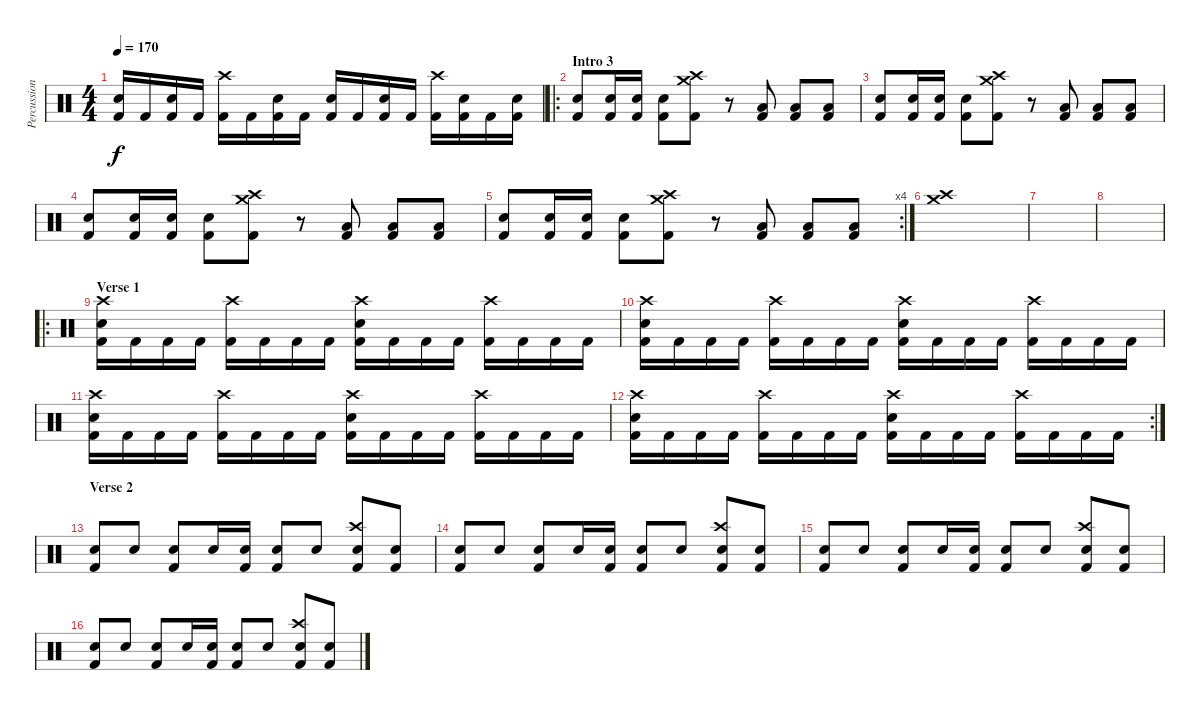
\track ("Percussion" "Percussion") {instrument percussion}
\staff {score}
\articulation defaults
\ts (4 4)
\tempo 170
\clef neutral
\ks c
("Electric Snare (hit)" "Kick (hit) 2").16{dy f} "Kick (hit) 2".16 ("Electric Snare (hit)" "Kick (hit) 2").16 "Kick (hit) 2".16 ("Crash high (hit)" "Kick (hit) 2").16 "Kick (hit) 2".16 ("Electric Snare (hit)" "Kick (hit) 2").16 "Kick (hit) 2".16 ("Electric Snare (hit)" "Kick (hit) 2").16 "Kick (hit) 2".16 ("Electric Snare (hit)" "Kick (hit) 2").16 "Kick (hit) 2".16 ("Crash high (hit)" "Kick (hit) 2").16 ("Electric Snare (hit)" "Kick (hit) 2").16 "Kick (hit) 2".16 ("Electric Snare (hit)" "Kick (hit) 2").16 |
\ro
\section ("" "Intro 3")
("Electric Snare (hit)" "Kick (hit) 2").8 ("Electric Snare (hit)" "Kick (hit) 2").16 ("Electric Snare (hit)" "Kick (hit) 2").16 ("Electric Snare (hit)" "Kick (hit) 2").8 ("Crash high (hit)" "Crash medium (hit)" "Kick (hit) 2").8 r.8 ("Low Tom (hit)" "Kick (hit) 2").8 ("Low Tom (hit)" "Kick (hit) 2").8 ("Low Tom (hit)" "Kick (hit) 2").8 |
("Electric Snare (hit)" "Kick (hit) 2").8 ("Electric Snare (hit)" "Kick (hit) 2").16 ("Electric Snare (hit)" "Kick (hit) 2").16 ("Electric Snare (hit)" "Kick (hit) 2").8 ("Crash high (hit)" "Crash medium (hit)" "Kick (hit) 2").8 r.8 ("Low Tom (hit)" "Kick (hit) 2").8 ("Low Tom (hit)" "Kick (hit) 2").8 ("Low Tom (hit)" "Kick (hit) 2").8 |
("Electric Snare (hit)" "Kick (hit) 2").8 ("Electric Snare (hit)" "Kick (hit) 2").16 ("Electric Snare (hit)" "Kick (hit) 2").16 ("Electric Snare (hit)" "Kick (hit) 2").8 ("Crash high (hit)" "Crash medium (hit)" "Kick (hit) 2").8 r.8 ("Low Tom (hit)" "Kick (hit) 2").8 ("Low Tom (hit)" "Kick (hit) 2").8 ("Low Tom (hit)" "Kick (hit) 2").8 |
\rc 4
("Electric Snare (hit)" "Kick (hit) 2").8 ("Electric Snare (hit)" "Kick (hit) 2").16 ("Electric Snare (hit)" "Kick (hit) 2").16 ("Electric Snare (hit)" "Kick (hit) 2").8 ("Crash high (hit)" "Crash medium (hit)" "Kick (hit) 2").8 r.8 ("Low Tom (hit)" "Kick (hit) 2").8 ("Low Tom (hit)" "Kick (hit) 2").8 ("Low Tom (hit)" "Kick (hit) 2").8 |
("Crash high (hit)" "Crash medium (hit)").1 |
|
|
\ro
\section ("" "Verse 1")
("Crash high (hit)" "Electric Snare (hit)" "Kick (hit) 2").16 "Kick (hit) 2".16 "Kick (hit) 2".16 "Kick (hit) 2".16 ("Crash high (hit)" "Kick (hit) 2").16 "Kick (hit) 2".16 "Kick (hit) 2".16 "Kick (hit) 2".16 ("Crash high (hit)" "Electric Snare (hit)" "Kick (hit) 2").16 "Kick (hit) 2".16 "Kick (hit) 2".16 "Kick (hit) 2".16 ("Crash high (hit)" "Kick (hit) 2").16 "Kick (hit) 2".16 "Kick (hit) 2".16 "Kick (hit) 2".16 |
("Crash high (hit)" "Electric Snare (hit)" "Kick (hit) 2").16 "Kick (hit) 2".16 "Kick (hit) 2".16 "Kick (hit) 2".16 ("Crash high (hit)" "Kick (hit) 2").16 "Kick (hit) 2".16 "Kick (hit) 2".16 "Kick (hit) 2".16 ("Crash high (hit)" "Electric Snare (hit)" "Kick (hit) 2").16 "Kick (hit) 2".16 "Kick (hit) 2".16 "Kick (hit) 2".16 ("Crash high (hit)" "Kick (hit) 2").16 "Kick (hit) 2".16 "Kick (hit) 2".16 "Kick (hit) 2".16 |
("Crash high (hit)" "Electric Snare (hit)" "Kick (hit) 2").16 "Kick (hit) 2".16 "Kick (hit) 2".16 "Kick (hit) 2".16 ("Crash high (hit)" "Kick (hit) 2").16 "Kick (hit) 2".16 "Kick (hit) 2".16 "Kick (hit) 2".16 ("Crash high (hit)" "Electric Snare (hit)" "Kick (hit) 2").16 "Kick (hit) 2".16 "Kick (hit) 2".16 "Kick (hit) 2".16 ("Crash high (hit)" "Kick (hit) 2").16 "Kick (hit) 2".16 "Kick (hit) 2".16 "Kick (hit) 2".16 |
\rc 2
("Crash high (hit)" "Electric Snare (hit)" "Kick (hit) 2").16 "Kick (hit) 2".16 "Kick (hit) 2".16 "Kick (hit) 2".16 ("Crash high (hit)" "Kick (hit) 2").16 "Kick (hit) 2".16 "Kick (hit) 2".16 "Kick (hit) 2".16 ("Crash high (hit)" "Electric Snare (hit)" "Kick (hit) 2").16 "Kick (hit) 2".16 "Kick (hit) 2".16 "Kick (hit) 2".16 ("Crash high (hit)" "Kick (hit) 2").16 "Kick (hit) 2".16 "Kick (hit) 2".16 "Kick (hit) 2".16 |
\section ("" "Verse 2")
("Snare (hit) 2" "Kick (hit) 2").8 "Snare (hit) 2".8 ("Snare (hit) 2" "Kick (hit) 2").8 "Snare (hit) 2".16 ("Snare (hit) 2" "Kick (hit) 2").16 ("Snare (hit) 2" "Kick (hit) 2").8 "Snare (hit) 2".8 ("Crash high (hit)" "Snare (hit) 2" "Kick (hit) 2").8 ("Snare (hit) 2" "Kick (hit) 2").8 |
("Snare (hit) 2" "Kick (hit) 2").8 "Snare (hit) 2".8 ("Snare (hit) 2" "Kick (hit) 2").8 "Snare (hit) 2".16 ("Snare (hit) 2" "Kick (hit) 2").16 ("Snare (hit) 2" "Kick (hit) 2").8 "Snare (hit) 2".8 ("Crash high (hit)" "Snare (hit) 2" "Kick (hit) 2").8 ("Snare (hit) 2" "Kick (hit) 2").8 |
("Snare (hit) 2" "Kick (hit) 2").8 "Snare (hit) 2".8 ("Snare (hit) 2" "Kick (hit) 2").8 "Snare (hit) 2".16 ("Snare (hit) 2" "Kick (hit) 2").16 ("Snare (hit) 2" "Kick (hit) 2").8 "Snare (hit) 2".8 ("Crash high (hit)" "Snare (hit) 2" "Kick (hit) 2").8 ("Snare (hit) 2" "Kick (hit) 2").8 |
("Snare (hit) 2" "Kick (hit) 2").8 "Snare (hit) 2".8 ("Snare (hit) 2" "Kick (hit) 2").8 "Snare (hit) 2".16 ("Snare (hit) 2" "Kick (hit) 2").16 ("Snare (hit) 2" "Kick (hit) 2").8 "Snare (hit) 2".8 ("Crash high (hit)" "Snare (hit) 2" "Kick (hit) 2").8 ("Snare (hit) 2" "Kick (hit) 2").8
